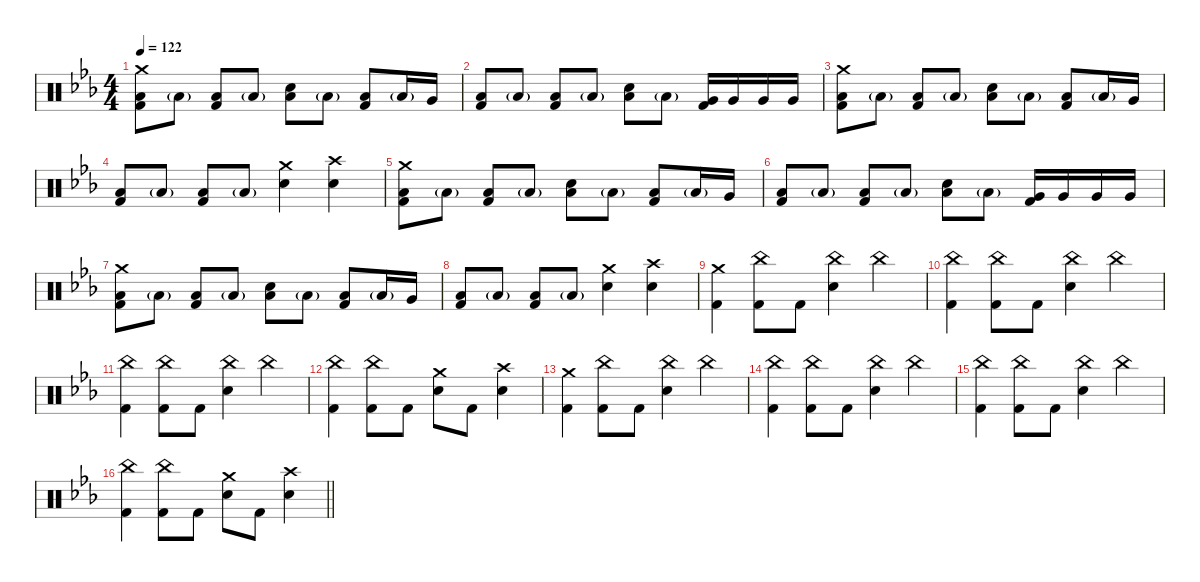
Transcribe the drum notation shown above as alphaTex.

\defaultSystemsLayout 4
\hideDynamics
\bracketExtendMode nobrackets
\singleTrackTrackNamePolicy hidden
\multiTrackTrackNamePolicy hidden
\firstSystemTrackNameMode fullname
\firstSystemTrackNameOrientation horizontal
\otherSystemsTrackNameOrientation horizontal
\track ("Drums" "drm.") {instrument percussion}
\staff {score}
\articulation defaults
\ts (4 4)
\tempo 122
\clef neutral
\ks cminor
("Crash medium (hit)"{acc forcenatural} "Low Floor Tom (hit)"{acc forcenatural} "Kick (hit) 2"{acc forcenatural}).8{dy f} "Low Floor Tom (hit)"{g acc forcenatural}.8{dy mf} ("Low Floor Tom (hit)"{acc forcenatural} "Kick (hit) 2"{acc forcenatural}).8{dy f} "Low Floor Tom (hit)"{g acc forcenatural}.8{dy mf} ("Snare (hit) 2"{acc forcenatural} "Low Floor Tom (hit)"{acc forcenatural}).8{dy f} "Low Floor Tom (hit)"{g acc forcenatural}.8{dy mf} ("Low Floor Tom (hit)"{acc forcenatural} "Kick (hit) 2"{acc forcenatural}).8{dy f} "Low Floor Tom (hit)"{g acc forcenatural}.16{dy mf} "Very Low Tom (hit)"{acc forcenatural}.16{dy f} |
("Low Floor Tom (hit)"{acc forcenatural} "Kick (hit) 2"{acc forcenatural}).8 "Low Floor Tom (hit)"{g acc forcenatural}.8{dy mf} ("Low Floor Tom (hit)"{acc forcenatural} "Kick (hit) 2"{acc forcenatural}).8{dy f} "Low Floor Tom (hit)"{g acc forcenatural}.8{dy mf} ("Snare (hit) 2"{acc forcenatural} "Low Floor Tom (hit)"{acc forcenatural}).8{dy f} "Low Floor Tom (hit)"{g acc forcenatural}.8{dy mf} ("Very Low Tom (hit)"{acc forcenatural} "Kick (hit) 2"{acc forcenatural}).16{dy f} "Very Low Tom (hit)"{acc forcenatural}.16 "Very Low Tom (hit)"{acc forcenatural}.16 "Very Low Tom (hit)"{acc forcenatural}.16 |
("Crash medium (hit)"{acc forcenatural} "Low Floor Tom (hit)"{acc forcenatural} "Kick (hit) 2"{acc forcenatural}).8 "Low Floor Tom (hit)"{g acc forcenatural}.8{dy mf} ("Low Floor Tom (hit)"{acc forcenatural} "Kick (hit) 2"{acc forcenatural}).8{dy f} "Low Floor Tom (hit)"{g acc forcenatural}.8{dy mf} ("Snare (hit) 2"{acc forcenatural} "Low Floor Tom (hit)"{acc forcenatural}).8{dy f} "Low Floor Tom (hit)"{g acc forcenatural}.8{dy mf} ("Low Floor Tom (hit)"{acc forcenatural} "Kick (hit) 2"{acc forcenatural}).8{dy f} "Low Floor Tom (hit)"{g acc forcenatural}.16{dy mf} "Very Low Tom (hit)"{acc forcenatural}.16{dy f} |
("Low Floor Tom (hit)"{acc forcenatural} "Kick (hit) 2"{acc forcenatural}).8 "Low Floor Tom (hit)"{g acc forcenatural}.8{dy mf} ("Low Floor Tom (hit)"{acc forcenatural} "Kick (hit) 2"{acc forcenatural}).8{dy f} "Low Floor Tom (hit)"{g acc forcenatural}.8{dy mf} ("Crash medium (hit)"{acc forcenatural} "Snare (hit) 2"{acc forcenatural}).4{dy f} ("Crash high (hit)"{acc forcenatural} "Snare (hit) 2"{acc forcenatural}).4 |
("Crash medium (hit)"{acc forcenatural} "Low Floor Tom (hit)"{acc forcenatural} "Kick (hit) 2"{acc forcenatural}).8 "Low Floor Tom (hit)"{g acc forcenatural}.8{dy mf} ("Low Floor Tom (hit)"{acc forcenatural} "Kick (hit) 2"{acc forcenatural}).8{dy f} "Low Floor Tom (hit)"{g acc forcenatural}.8{dy mf} ("Snare (hit) 2"{acc forcenatural} "Low Floor Tom (hit)"{acc forcenatural}).8{dy f} "Low Floor Tom (hit)"{g acc forcenatural}.8{dy mf} ("Low Floor Tom (hit)"{acc forcenatural} "Kick (hit) 2"{acc forcenatural}).8{dy f} "Low Floor Tom (hit)"{g acc forcenatural}.16{dy mf} "Very Low Tom (hit)"{acc forcenatural}.16{dy f} |
("Low Floor Tom (hit)"{acc forcenatural} "Kick (hit) 2"{acc forcenatural}).8 "Low Floor Tom (hit)"{g acc forcenatural}.8{dy mf} ("Low Floor Tom (hit)"{acc forcenatural} "Kick (hit) 2"{acc forcenatural}).8{dy f} "Low Floor Tom (hit)"{g acc forcenatural}.8{dy mf} ("Snare (hit) 2"{acc forcenatural} "Low Floor Tom (hit)"{acc forcenatural}).8{dy f} "Low Floor Tom (hit)"{g acc forcenatural}.8{dy mf} ("Very Low Tom (hit)"{acc forcenatural} "Kick (hit) 2"{acc forcenatural}).16{dy f} "Very Low Tom (hit)"{acc forcenatural}.16 "Very Low Tom (hit)"{acc forcenatural}.16 "Very Low Tom (hit)"{acc forcenatural}.16 |
("Crash medium (hit)"{acc forcenatural} "Low Floor Tom (hit)"{acc forcenatural} "Kick (hit) 2"{acc forcenatural}).8 "Low Floor Tom (hit)"{g acc forcenatural}.8{dy mf} ("Low Floor Tom (hit)"{acc forcenatural} "Kick (hit) 2"{acc forcenatural}).8{dy f} "Low Floor Tom (hit)"{g acc forcenatural}.8{dy mf} ("Snare (hit) 2"{acc forcenatural} "Low Floor Tom (hit)"{acc forcenatural}).8{dy f} "Low Floor Tom (hit)"{g acc forcenatural}.8{dy mf} ("Low Floor Tom (hit)"{acc forcenatural} "Kick (hit) 2"{acc forcenatural}).8{dy f} "Low Floor Tom (hit)"{g acc forcenatural}.16{dy mf} "Very Low Tom (hit)"{acc forcenatural}.16{dy f} |
("Low Floor Tom (hit)"{acc forcenatural} "Kick (hit) 2"{acc forcenatural}).8 "Low Floor Tom (hit)"{g acc forcenatural}.8{dy mf} ("Low Floor Tom (hit)"{acc forcenatural} "Kick (hit) 2"{acc forcenatural}).8{dy f} "Low Floor Tom (hit)"{g acc forcenatural}.8{dy mf} ("Crash medium (hit)"{acc forcenatural} "Snare (hit) 2"{acc forcenatural}).4{dy f} ("Crash high (hit)"{acc forcenatural} "Snare (hit) 2"{acc forcenatural}).4 |
("Crash medium (hit)"{acc forcenatural} "Kick (hit) 2"{acc forcenatural}).4 ("China (hit)"{acc forcenatural} "Kick (hit) 2"{acc forcenatural}).8{dy mp} "Kick (hit) 2"{acc forcenatural}.8{dy f} ("China (hit)"{acc forcenatural} "Snare (hit) 2"{acc forcenatural}).4{dy mp} "China (hit)"{acc forcenatural}.4 |
("China (hit)"{acc forcenatural} "Kick (hit) 2"{acc forcenatural}).4 ("China (hit)"{acc forcenatural} "Kick (hit) 2"{acc forcenatural}).8 "Kick (hit) 2"{acc forcenatural}.8{dy f} ("China (hit)"{acc forcenatural} "Snare (hit) 2"{acc forcenatural}).4{dy mp} "China (hit)"{acc forcenatural}.4 |
("China (hit)"{acc forcenatural} "Kick (hit) 2"{acc forcenatural}).4 ("China (hit)"{acc forcenatural} "Kick (hit) 2"{acc forcenatural}).8 "Kick (hit) 2"{acc forcenatural}.8{dy f} ("China (hit)"{acc forcenatural} "Snare (hit) 2"{acc forcenatural}).4{dy mp} "China (hit)"{acc forcenatural}.4 |
("China (hit)"{acc forcenatural} "Kick (hit) 2"{acc forcenatural}).4 ("China (hit)"{acc forcenatural} "Kick (hit) 2"{acc forcenatural}).8 "Kick (hit) 2"{acc forcenatural}.8{dy f} ("Crash medium (hit)"{acc forcenatural} "Snare (hit) 2"{acc forcenatural}).8 "Kick (hit) 2"{acc forcenatural}.8 ("Crash high (hit)"{acc forcenatural} "Snare (hit) 2"{acc forcenatural}).4 |
("Crash medium (hit)"{acc forcenatural} "Kick (hit) 2"{acc forcenatural}).4 ("China (hit)"{acc forcenatural} "Kick (hit) 2"{acc forcenatural}).8{dy mp} "Kick (hit) 2"{acc forcenatural}.8{dy f} ("China (hit)"{acc forcenatural} "Snare (hit) 2"{acc forcenatural}).4{dy mp} "China (hit)"{acc forcenatural}.4 |
("China (hit)"{acc forcenatural} "Kick (hit) 2"{acc forcenatural}).4 ("China (hit)"{acc forcenatural} "Kick (hit) 2"{acc forcenatural}).8 "Kick (hit) 2"{acc forcenatural}.8{dy f} ("China (hit)"{acc forcenatural} "Snare (hit) 2"{acc forcenatural}).4{dy mp} "China (hit)"{acc forcenatural}.4 |
("China (hit)"{acc forcenatural} "Kick (hit) 2"{acc forcenatural}).4 ("China (hit)"{acc forcenatural} "Kick (hit) 2"{acc forcenatural}).8 "Kick (hit) 2"{acc forcenatural}.8{dy f} ("China (hit)"{acc forcenatural} "Snare (hit) 2"{acc forcenatural}).4{dy mp} "China (hit)"{acc forcenatural}.4 |
\barLineRight lightlight
("China (hit)"{acc forcenatural} "Kick (hit) 2"{acc forcenatural}).4 ("China (hit)"{acc forcenatural} "Kick (hit) 2"{acc forcenatural}).8 "Kick (hit) 2"{acc forcenatural}.8{dy f} ("Crash medium (hit)"{acc forcenatural} "Snare (hit) 2"{acc forcenatural}).8 "Kick (hit) 2"{acc forcenatural}.8 ("Crash high (hit)"{acc forcenatural} "Snare (hit) 2"{acc forcenatural}).4
